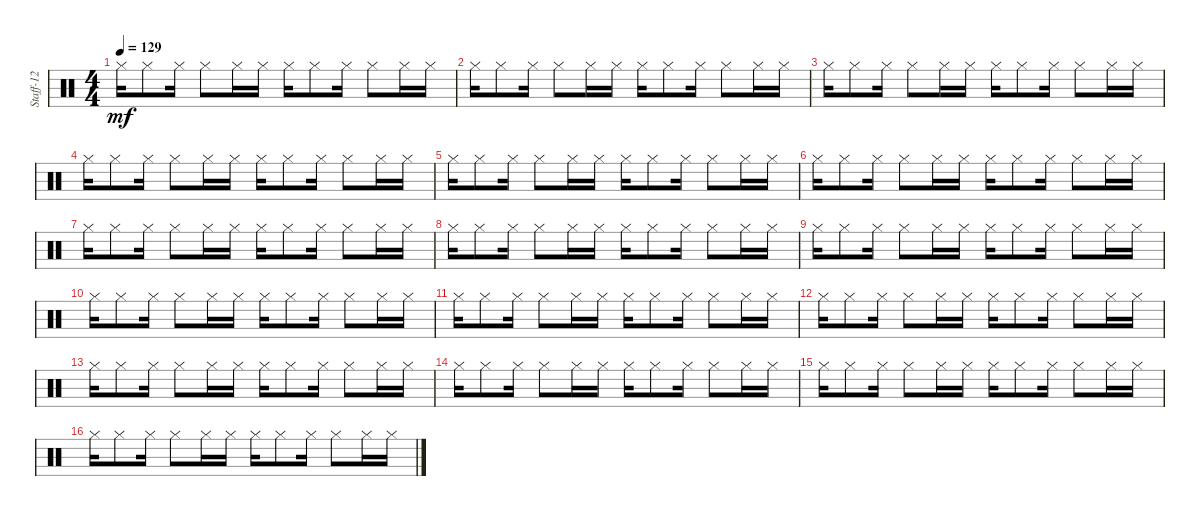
\track ("Staff-12" "Staff-12") {instrument percussion}
\staff {score}
\articulation defaults
\ts (4 4)
\tempo 129
\clef neutral
\ks c "Hi-Hat (closed)".16{dy mf} "Hi-Hat (closed)".8 "Hi-Hat (closed)".16 "Hi-Hat (closed)".8 "Hi-Hat (closed)".16 "Hi-Hat (closed)".16 "Hi-Hat (closed)".16 "Hi-Hat (closed)".8 "Hi-Hat (closed)".16 "Hi-Hat (closed)".8 "Hi-Hat (closed)".16 "Hi-Hat (closed)".16
|
"Hi-Hat (closed)".16 "Hi-Hat (closed)".8 "Hi-Hat (closed)".16 "Hi-Hat (closed)".8 "Hi-Hat (closed)".16 "Hi-Hat (closed)".16 "Hi-Hat (closed)".16 "Hi-Hat (closed)".8 "Hi-Hat (closed)".16 "Hi-Hat (closed)".8 "Hi-Hat (closed)".16 "Hi-Hat (closed)".16 |
"Hi-Hat (closed)".16 "Hi-Hat (closed)".8 "Hi-Hat (closed)".16 "Hi-Hat (closed)".8 "Hi-Hat (closed)".16 "Hi-Hat (closed)".16 "Hi-Hat (closed)".16 "Hi-Hat (closed)".8 "Hi-Hat (closed)".16 "Hi-Hat (closed)".8 "Hi-Hat (closed)".16 "Hi-Hat (closed)".16 |
"Hi-Hat (closed)".16 "Hi-Hat (closed)".8 "Hi-Hat (closed)".16 "Hi-Hat (closed)".8 "Hi-Hat (closed)".16 "Hi-Hat (closed)".16 "Hi-Hat (closed)".16 "Hi-Hat (closed)".8 "Hi-Hat (closed)".16 "Hi-Hat (closed)".8 "Hi-Hat (closed)".16 "Hi-Hat (closed)".16 |
"Hi-Hat (closed)".16 "Hi-Hat (closed)".8 "Hi-Hat (closed)".16 "Hi-Hat (closed)".8 "Hi-Hat (closed)".16 "Hi-Hat (closed)".16 "Hi-Hat (closed)".16 "Hi-Hat (closed)".8 "Hi-Hat (closed)".16 "Hi-Hat (closed)".8 "Hi-Hat (closed)".16 "Hi-Hat (closed)".16 |
"Hi-Hat (closed)".16 "Hi-Hat (closed)".8 "Hi-Hat (closed)".16 "Hi-Hat (closed)".8 "Hi-Hat (closed)".16 "Hi-Hat (closed)".16 "Hi-Hat (closed)".16 "Hi-Hat (closed)".8 "Hi-Hat (closed)".16 "Hi-Hat (closed)".8 "Hi-Hat (closed)".16 "Hi-Hat (closed)".16 |
"Hi-Hat (closed)".16 "Hi-Hat (closed)".8 "Hi-Hat (closed)".16 "Hi-Hat (closed)".8 "Hi-Hat (closed)".16 "Hi-Hat (closed)".16 "Hi-Hat (closed)".16 "Hi-Hat (closed)".8 "Hi-Hat (closed)".16 "Hi-Hat (closed)".8 "Hi-Hat (closed)".16 "Hi-Hat (closed)".16 |
"Hi-Hat (closed)".16 "Hi-Hat (closed)".8 "Hi-Hat (closed)".16 "Hi-Hat (closed)".8 "Hi-Hat (closed)".16 "Hi-Hat (closed)".16 "Hi-Hat (closed)".16 "Hi-Hat (closed)".8 "Hi-Hat (closed)".16 "Hi-Hat (closed)".8 "Hi-Hat (closed)".16 "Hi-Hat (closed)".16 |
"Hi-Hat (closed)".16 "Hi-Hat (closed)".8 "Hi-Hat (closed)".16 "Hi-Hat (closed)".8 "Hi-Hat (closed)".16 "Hi-Hat (closed)".16 "Hi-Hat (closed)".16 "Hi-Hat (closed)".8 "Hi-Hat (closed)".16 "Hi-Hat (closed)".8 "Hi-Hat (closed)".16 "Hi-Hat (closed)".16 |
"Hi-Hat (closed)".16 "Hi-Hat (closed)".8 "Hi-Hat (closed)".16 "Hi-Hat (closed)".8 "Hi-Hat (closed)".16 "Hi-Hat (closed)".16 "Hi-Hat (closed)".16 "Hi-Hat (closed)".8 "Hi-Hat (closed)".16 "Hi-Hat (closed)".8 "Hi-Hat (closed)".16 "Hi-Hat (closed)".16 |
"Hi-Hat (closed)".16 "Hi-Hat (closed)".8 "Hi-Hat (closed)".16 "Hi-Hat (closed)".8 "Hi-Hat (closed)".16 "Hi-Hat (closed)".16 "Hi-Hat (closed)".16 "Hi-Hat (closed)".8 "Hi-Hat (closed)".16 "Hi-Hat (closed)".8 "Hi-Hat (closed)".16 "Hi-Hat (closed)".16 |
"Hi-Hat (closed)".16 "Hi-Hat (closed)".8 "Hi-Hat (closed)".16 "Hi-Hat (closed)".8 "Hi-Hat (closed)".16 "Hi-Hat (closed)".16 "Hi-Hat (closed)".16 "Hi-Hat (closed)".8 "Hi-Hat (closed)".16 "Hi-Hat (closed)".8 "Hi-Hat (closed)".16 "Hi-Hat (closed)".16 |
"Hi-Hat (closed)".16 "Hi-Hat (closed)".8 "Hi-Hat (closed)".16 "Hi-Hat (closed)".8 "Hi-Hat (closed)".16 "Hi-Hat (closed)".16 "Hi-Hat (closed)".16 "Hi-Hat (closed)".8 "Hi-Hat (closed)".16 "Hi-Hat (closed)".8 "Hi-Hat (closed)".16 "Hi-Hat (closed)".16 |
"Hi-Hat (closed)".16 "Hi-Hat (closed)".8 "Hi-Hat (closed)".16 "Hi-Hat (closed)".8 "Hi-Hat (closed)".16 "Hi-Hat (closed)".16 "Hi-Hat (closed)".16 "Hi-Hat (closed)".8 "Hi-Hat (closed)".16 "Hi-Hat (closed)".8 "Hi-Hat (closed)".16 "Hi-Hat (closed)".16 |
"Hi-Hat (closed)".16 "Hi-Hat (closed)".8 "Hi-Hat (closed)".16 "Hi-Hat (closed)".8 "Hi-Hat (closed)".16 "Hi-Hat (closed)".16 "Hi-Hat (closed)".16 "Hi-Hat (closed)".8 "Hi-Hat (closed)".16 "Hi-Hat (closed)".8 "Hi-Hat (closed)".16 "Hi-Hat (closed)".16 |
"Hi-Hat (closed)".16 "Hi-Hat (closed)".8 "Hi-Hat (closed)".16 "Hi-Hat (closed)".8 "Hi-Hat (closed)".16 "Hi-Hat (closed)".16 "Hi-Hat (closed)".16 "Hi-Hat (closed)".8 "Hi-Hat (closed)".16 "Hi-Hat (closed)".8 "Hi-Hat (closed)".16 "Hi-Hat (closed)".16
